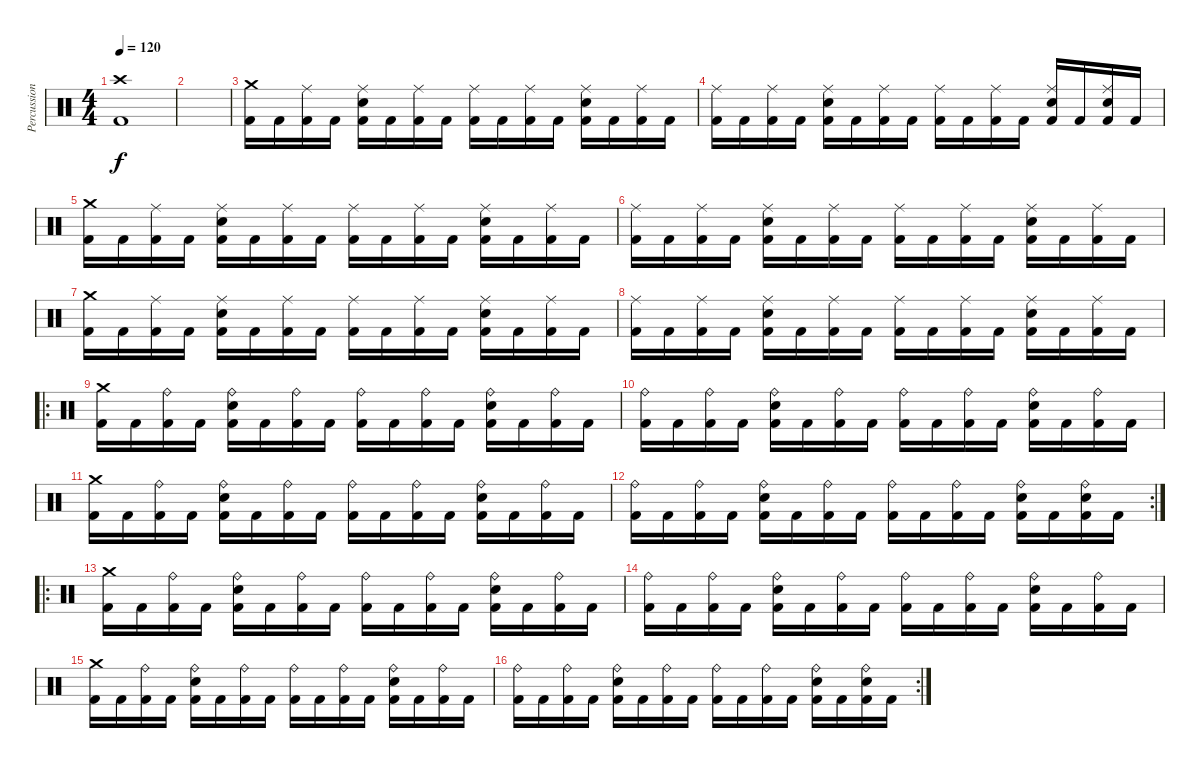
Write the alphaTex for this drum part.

\track ("Percussion" "Percussion") {instrument percussion}
\staff {score}
\articulation defaults
\ts (4 4)
\tempo 120
\clef neutral
\ks c
("Crash high (hit)" "Kick (hit) 2").1{dy f} |
|
("Crash medium (hit)" "Kick (hit) 2").16 "Kick (hit) 2".16 ("Ride (middle)" "Kick (hit) 2").16 "Kick (hit) 2".16 ("Ride (middle)" "Snare (hit) 2" "Kick (hit) 2").16 "Kick (hit) 2".16 ("Ride (middle)" "Kick (hit) 2").16 "Kick (hit) 2".16 ("Ride (middle)" "Kick (hit) 2").16 "Kick (hit) 2".16 ("Ride (middle)" "Kick (hit) 2").16 "Kick (hit) 2".16 ("Ride (middle)" "Snare (hit) 2" "Kick (hit) 2").16 "Kick (hit) 2".16 ("Ride (middle)" "Kick (hit) 2").16 "Kick (hit) 2".16 |
("Ride (middle)" "Kick (hit) 2").16 "Kick (hit) 2".16 ("Ride (middle)" "Kick (hit) 2").16 "Kick (hit) 2".16 ("Ride (middle)" "Snare (hit) 2" "Kick (hit) 2").16 "Kick (hit) 2".16 ("Ride (middle)" "Kick (hit) 2").16 "Kick (hit) 2".16 ("Ride (middle)" "Kick (hit) 2").16 "Kick (hit) 2".16 ("Ride (middle)" "Kick (hit) 2").16 "Kick (hit) 2".16 ("Ride (middle)" "Snare (hit) 2" "Kick (hit) 2").16 "Kick (hit) 2".16 ("Ride (middle)" "Snare (hit) 2" "Kick (hit) 2").16 "Kick (hit) 2".16 |
("Crash medium (hit)" "Kick (hit) 2").16 "Kick (hit) 2".16 ("Ride (middle)" "Kick (hit) 2").16 "Kick (hit) 2".16 ("Ride (middle)" "Snare (hit) 2" "Kick (hit) 2").16 "Kick (hit) 2".16 ("Ride (middle)" "Kick (hit) 2").16 "Kick (hit) 2".16 ("Ride (middle)" "Kick (hit) 2").16 "Kick (hit) 2".16 ("Ride (middle)" "Kick (hit) 2").16 "Kick (hit) 2".16 ("Ride (middle)" "Snare (hit) 2" "Kick (hit) 2").16 "Kick (hit) 2".16 ("Ride (middle)" "Kick (hit) 2").16 "Kick (hit) 2".16 |
("Ride (middle)" "Kick (hit) 2").16 "Kick (hit) 2".16 ("Ride (middle)" "Kick (hit) 2").16 "Kick (hit) 2".16 ("Ride (middle)" "Snare (hit) 2" "Kick (hit) 2").16 "Kick (hit) 2".16 ("Ride (middle)" "Kick (hit) 2").16 "Kick (hit) 2".16 ("Ride (middle)" "Kick (hit) 2").16 "Kick (hit) 2".16 ("Ride (middle)" "Kick (hit) 2").16 "Kick (hit) 2".16 ("Ride (middle)" "Snare (hit) 2" "Kick (hit) 2").16 "Kick (hit) 2".16 ("Ride (middle)" "Kick (hit) 2").16 "Kick (hit) 2".16 |
("Crash medium (hit)" "Kick (hit) 2").16 "Kick (hit) 2".16 ("Ride (middle)" "Kick (hit) 2").16 "Kick (hit) 2".16 ("Ride (middle)" "Snare (hit) 2" "Kick (hit) 2").16 "Kick (hit) 2".16 ("Ride (middle)" "Kick (hit) 2").16 "Kick (hit) 2".16 ("Ride (middle)" "Kick (hit) 2").16 "Kick (hit) 2".16 ("Ride (middle)" "Kick (hit) 2").16 "Kick (hit) 2".16 ("Ride (middle)" "Snare (hit) 2" "Kick (hit) 2").16 "Kick (hit) 2".16 ("Ride (middle)" "Kick (hit) 2").16 "Kick (hit) 2".16 |
("Ride (middle)" "Kick (hit) 2").16 "Kick (hit) 2".16 ("Ride (middle)" "Kick (hit) 2").16 "Kick (hit) 2".16 ("Ride (middle)" "Snare (hit) 2" "Kick (hit) 2").16 "Kick (hit) 2".16 ("Ride (middle)" "Kick (hit) 2").16 "Kick (hit) 2".16 ("Ride (middle)" "Kick (hit) 2").16 "Kick (hit) 2".16 ("Ride (middle)" "Kick (hit) 2").16 "Kick (hit) 2".16 ("Ride (middle)" "Snare (hit) 2" "Kick (hit) 2").16 "Kick (hit) 2".16 ("Ride (middle)" "Kick (hit) 2").16 "Kick (hit) 2".16 |
\ro
("Crash medium (hit)" "Kick (hit) 2").16 "Kick (hit) 2".16 ("Ride (bell)" "Kick (hit) 2").16 "Kick (hit) 2".16 ("Ride (bell)" "Snare (hit) 2" "Kick (hit) 2").16 "Kick (hit) 2".16 ("Ride (bell)" "Kick (hit) 2").16 "Kick (hit) 2".16 ("Ride (bell)" "Kick (hit) 2").16 "Kick (hit) 2".16 ("Ride (bell)" "Kick (hit) 2").16 "Kick (hit) 2".16 ("Ride (bell)" "Snare (hit) 2" "Kick (hit) 2").16 "Kick (hit) 2".16 ("Ride (bell)" "Kick (hit) 2").16 "Kick (hit) 2".16 |
("Ride (bell)" "Kick (hit) 2").16 "Kick (hit) 2".16 ("Ride (bell)" "Kick (hit) 2").16 "Kick (hit) 2".16 ("Ride (bell)" "Snare (hit) 2" "Kick (hit) 2").16 "Kick (hit) 2".16 ("Ride (bell)" "Kick (hit) 2").16 "Kick (hit) 2".16 ("Ride (bell)" "Kick (hit) 2").16 "Kick (hit) 2".16 ("Ride (bell)" "Kick (hit) 2").16 "Kick (hit) 2".16 ("Ride (bell)" "Snare (hit) 2" "Kick (hit) 2").16 "Kick (hit) 2".16 ("Ride (bell)" "Kick (hit) 2").16 "Kick (hit) 2".16 |
("Crash medium (hit)" "Kick (hit) 2").16 "Kick (hit) 2".16 ("Ride (bell)" "Kick (hit) 2").16 "Kick (hit) 2".16 ("Ride (bell)" "Snare (hit) 2" "Kick (hit) 2").16 "Kick (hit) 2".16 ("Ride (bell)" "Kick (hit) 2").16 "Kick (hit) 2".16 ("Ride (bell)" "Kick (hit) 2").16 "Kick (hit) 2".16 ("Ride (bell)" "Kick (hit) 2").16 "Kick (hit) 2".16 ("Ride (bell)" "Snare (hit) 2" "Kick (hit) 2").16 "Kick (hit) 2".16 ("Ride (bell)" "Kick (hit) 2").16 "Kick (hit) 2".16 |
\rc 2
("Ride (bell)" "Kick (hit) 2").16 "Kick (hit) 2".16 ("Ride (bell)" "Kick (hit) 2").16 "Kick (hit) 2".16 ("Ride (bell)" "Snare (hit) 2" "Kick (hit) 2").16 "Kick (hit) 2".16 ("Ride (bell)" "Kick (hit) 2").16 "Kick (hit) 2".16 ("Ride (bell)" "Kick (hit) 2").16 "Kick (hit) 2".16 ("Ride (bell)" "Kick (hit) 2").16 "Kick (hit) 2".16 ("Ride (bell)" "Snare (hit) 2" "Kick (hit) 2").16 "Kick (hit) 2".16 ("Ride (bell)" "Snare (hit) 2" "Kick (hit) 2").16 "Kick (hit) 2".16 |
\ro
("Crash medium (hit)" "Kick (hit) 2").16 "Kick (hit) 2".16 ("Ride (bell)" "Kick (hit) 2").16 "Kick (hit) 2".16 ("Ride (bell)" "Snare (hit) 2" "Kick (hit) 2").16 "Kick (hit) 2".16 ("Ride (bell)" "Kick (hit) 2").16 "Kick (hit) 2".16 ("Ride (bell)" "Kick (hit) 2").16 "Kick (hit) 2".16 ("Ride (bell)" "Kick (hit) 2").16 "Kick (hit) 2".16 ("Ride (bell)" "Snare (hit) 2" "Kick (hit) 2").16 "Kick (hit) 2".16 ("Ride (bell)" "Kick (hit) 2").16 "Kick (hit) 2".16 |
("Ride (bell)" "Kick (hit) 2").16 "Kick (hit) 2".16 ("Ride (bell)" "Kick (hit) 2").16 "Kick (hit) 2".16 ("Ride (bell)" "Snare (hit) 2" "Kick (hit) 2").16 "Kick (hit) 2".16 ("Ride (bell)" "Kick (hit) 2").16 "Kick (hit) 2".16 ("Ride (bell)" "Kick (hit) 2").16 "Kick (hit) 2".16 ("Ride (bell)" "Kick (hit) 2").16 "Kick (hit) 2".16 ("Ride (bell)" "Snare (hit) 2" "Kick (hit) 2").16 "Kick (hit) 2".16 ("Ride (bell)" "Kick (hit) 2").16 "Kick (hit) 2".16 |
("Crash medium (hit)" "Kick (hit) 2").16 "Kick (hit) 2".16 ("Ride (bell)" "Kick (hit) 2").16 "Kick (hit) 2".16 ("Ride (bell)" "Snare (hit) 2" "Kick (hit) 2").16 "Kick (hit) 2".16 ("Ride (bell)" "Kick (hit) 2").16 "Kick (hit) 2".16 ("Ride (bell)" "Kick (hit) 2").16 "Kick (hit) 2".16 ("Ride (bell)" "Kick (hit) 2").16 "Kick (hit) 2".16 ("Ride (bell)" "Snare (hit) 2" "Kick (hit) 2").16 "Kick (hit) 2".16 ("Ride (bell)" "Kick (hit) 2").16 "Kick (hit) 2".16 |
\rc 2
("Ride (bell)" "Kick (hit) 2").16 "Kick (hit) 2".16 ("Ride (bell)" "Kick (hit) 2").16 "Kick (hit) 2".16 ("Ride (bell)" "Snare (hit) 2" "Kick (hit) 2").16 "Kick (hit) 2".16 ("Ride (bell)" "Kick (hit) 2").16 "Kick (hit) 2".16 ("Ride (bell)" "Kick (hit) 2").16 "Kick (hit) 2".16 ("Ride (bell)" "Kick (hit) 2").16 "Kick (hit) 2".16 ("Ride (bell)" "Snare (hit) 2" "Kick (hit) 2").16 "Kick (hit) 2".16 ("Ride (bell)" "Snare (hit) 2" "Kick (hit) 2").16 "Kick (hit) 2".16
